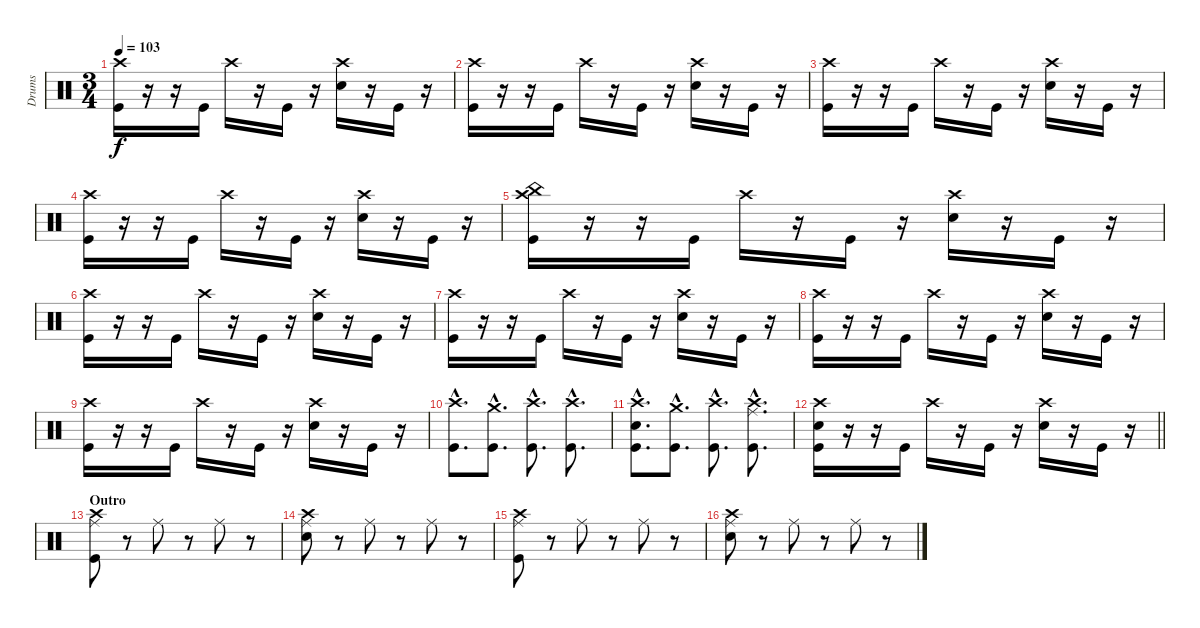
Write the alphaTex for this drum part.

\track ("Drums" "Drums") {instrument percussion}
\staff {score}
\articulation defaults
\ts (3 4)
\tempo 103
\clef neutral
\ks c
("Crash high (hit)" "Kick (hit)").16{dy f} r.16 r.16 "Kick (hit)".16 "Crash high (hit)".16 r.16 "Kick (hit)".16 r.16 ("Crash high (hit)" "Snare (hit) 2").16 r.16 "Kick (hit)".16 r.16 |
("Crash high (hit)" "Kick (hit)").16 r.16 r.16 "Kick (hit)".16 "Crash high (hit)".16 r.16 "Kick (hit)".16 r.16 ("Crash high (hit)" "Snare (hit) 2").16 r.16 "Kick (hit)".16 r.16 |
("Crash high (hit)" "Kick (hit)").16 r.16 r.16 "Kick (hit)".16 "Crash high (hit)".16 r.16 "Kick (hit)".16 r.16 ("Crash high (hit)" "Snare (hit) 2").16 r.16 "Kick (hit)".16 r.16 |
("Crash high (hit)" "Kick (hit)").16 r.16 r.16 "Kick (hit)".16 "Crash high (hit)".16 r.16 "Kick (hit)".16 r.16 ("Crash high (hit)" "Snare (hit) 2").16 r.16 "Kick (hit)".16 r.16 |
("Crash high (hit)" "China (hit)" "Kick (hit)").16 r.16 r.16 "Kick (hit)".16 "Crash high (hit)".16 r.16 "Kick (hit)".16 r.16 ("Crash high (hit)" "Snare (hit) 2").16 r.16 "Kick (hit)".16 r.16 |
("Crash high (hit)" "Kick (hit)").16 r.16 r.16 "Kick (hit)".16 "Crash high (hit)".16 r.16 "Kick (hit)".16 r.16 ("Crash high (hit)" "Snare (hit) 2").16 r.16 "Kick (hit)".16 r.16 |
("Crash high (hit)" "Kick (hit)").16 r.16 r.16 "Kick (hit)".16 "Crash high (hit)".16 r.16 "Kick (hit)".16 r.16 ("Crash high (hit)" "Snare (hit) 2").16 r.16 "Kick (hit)".16 r.16 |
("Crash high (hit)" "Kick (hit)").16 r.16 r.16 "Kick (hit)".16 "Crash high (hit)".16 r.16 "Kick (hit)".16 r.16 ("Crash high (hit)" "Snare (hit) 2").16 r.16 "Kick (hit)".16 r.16 |
("Crash high (hit)" "Kick (hit)").16 r.16 r.16 "Kick (hit)".16 "Crash high (hit)".16 r.16 "Kick (hit)".16 r.16 ("Crash high (hit)" "Snare (hit) 2").16 r.16 "Kick (hit)".16 r.16 |
("Crash high (hit)"{hac} "Kick (hit)"{hac}).8{d} ("Crash medium (hit)"{hac} "Kick (hit)"{hac}).8{d} ("Crash high (hit)"{hac} "Kick (hit)"{hac}).8{d} ("Crash high (hit)"{hac} "Kick (hit)"{hac}).8{d} |
("Crash high (hit)"{hac} "Snare (hit) 2"{hac} "Kick (hit)"{hac}).8{d} ("Crash medium (hit)"{hac} "Kick (hit)"{hac}).8{d} ("Crash high (hit)"{hac} "Kick (hit)"{hac}).8{d} ("Crash high (hit)"{hac} "Ride (middle)"{hac} "Kick (hit)"{hac}).8{d} |
\barLineRight lightlight
("Crash high (hit)" "Snare (hit) 2" "Kick (hit)").16 r.16 r.16 "Kick (hit)".16 "Crash high (hit)".16 r.16 "Kick (hit)".16 r.16 ("Crash high (hit)" "Snare (hit) 2").16 r.16 "Kick (hit)".16 r.16 |
\section ("" "Outro")
("Crash high (hit)" "Ride (middle)" "Kick (hit)").8 r.8 "Ride (middle)".8 r.8 "Ride (middle)".8 r.8 |
("Crash high (hit)" "Ride (middle)" "Snare (hit) 2").8 r.8 "Ride (middle)".8 r.8 "Ride (middle)".8 r.8 |
("Crash high (hit)" "Ride (middle)" "Kick (hit)").8 r.8 "Ride (middle)".8 r.8 "Ride (middle)".8 r.8 |
("Crash high (hit)" "Ride (middle)" "Snare (hit) 2").8 r.8 "Ride (middle)".8 r.8 "Ride (middle)".8 r.8
